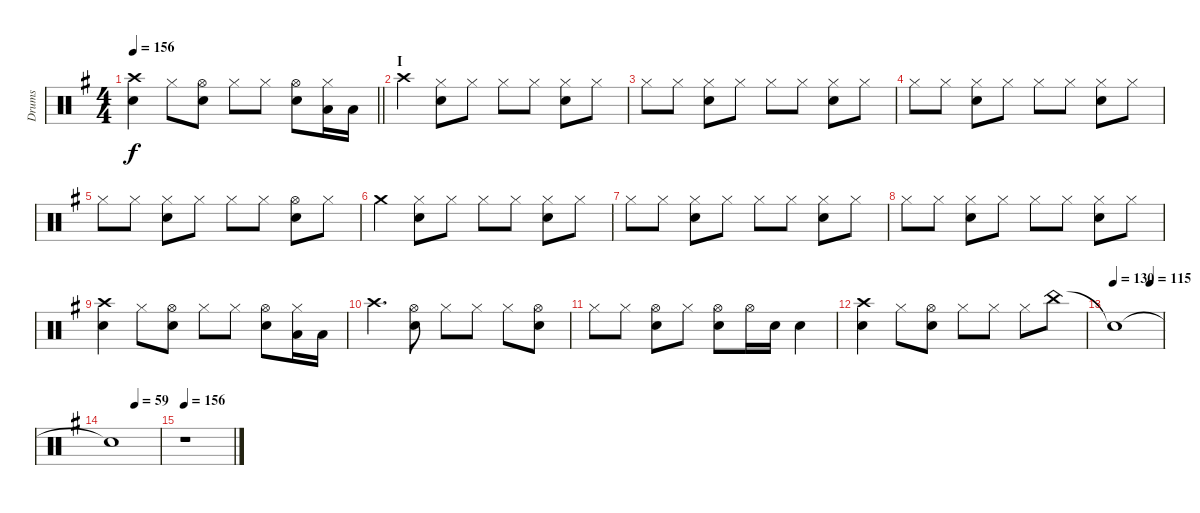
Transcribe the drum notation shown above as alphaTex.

\track ("Drums" "Drums") {instrument percussion}
\staff {score}
\articulation defaults
\ts (4 4)
\tempo 156
\clef neutral
\barLineRight lightlight
\ks g
("Crash high (hit)" "Snare (hit) 2").4{dy f} "Hi-Hat (closed)".8 ("Hi-Hat (open)" "Snare (hit) 2").8 "Hi-Hat (closed)".8 "Hi-Hat (closed)".8 ("Hi-Hat (open)" "Snare (hit) 2").8 ("Hi-Hat (closed)" "Low Tom (hit)").16 "Low Tom (hit)".16 |
\section ("" "I")
"Crash high (hit)".4 ("Hi-Hat (closed)" "Snare (hit) 2").8 "Hi-Hat (closed)".8 "Hi-Hat (closed)".8 "Hi-Hat (closed)".8 ("Hi-Hat (closed)" "Snare (hit) 2").8 "Hi-Hat (closed)".8 |
"Hi-Hat (closed)".8 "Hi-Hat (closed)".8 ("Hi-Hat (closed)" "Snare (hit) 2").8 "Hi-Hat (closed)".8 "Hi-Hat (closed)".8 "Hi-Hat (closed)".8 ("Hi-Hat (closed)" "Snare (hit) 2").8 "Hi-Hat (closed)".8 |
"Hi-Hat (closed)".8 "Hi-Hat (closed)".8 ("Hi-Hat (closed)" "Snare (hit) 2").8 "Hi-Hat (closed)".8 "Hi-Hat (closed)".8 "Hi-Hat (closed)".8 ("Hi-Hat (closed)" "Snare (hit) 2").8 "Hi-Hat (closed)".8 |
"Hi-Hat (closed)".8 "Hi-Hat (closed)".8 ("Hi-Hat (closed)" "Snare (hit) 2").8 "Hi-Hat (closed)".8 "Hi-Hat (closed)".8 "Hi-Hat (closed)".8 ("Hi-Hat (open)" "Snare (hit) 2").8 "Hi-Hat (closed)".8 |
"Crash medium (hit)".4 ("Hi-Hat (closed)" "Snare (hit) 2").8 "Hi-Hat (closed)".8 "Hi-Hat (closed)".8 "Hi-Hat (closed)".8 ("Hi-Hat (closed)" "Snare (hit) 2").8 "Hi-Hat (closed)".8 |
"Hi-Hat (closed)".8 "Hi-Hat (closed)".8 ("Hi-Hat (closed)" "Snare (hit) 2").8 "Hi-Hat (closed)".8 "Hi-Hat (closed)".8 "Hi-Hat (closed)".8 ("Hi-Hat (closed)" "Snare (hit) 2").8 "Hi-Hat (closed)".8 |
"Hi-Hat (closed)".8 "Hi-Hat (closed)".8 ("Hi-Hat (closed)" "Snare (hit) 2").8 "Hi-Hat (closed)".8 "Hi-Hat (closed)".8 "Hi-Hat (closed)".8 ("Hi-Hat (closed)" "Snare (hit) 2").8 "Hi-Hat (closed)".8 |
("Crash high (hit)" "Snare (hit) 2").4 "Hi-Hat (closed)".8 ("Hi-Hat (open)" "Snare (hit) 2").8 "Hi-Hat (closed)".8 "Hi-Hat (closed)".8 ("Hi-Hat (open)" "Snare (hit) 2").8 ("Hi-Hat (closed)" "Low Tom (hit)").16 "Low Tom (hit)".16 |
"Crash high (hit)".4{d} ("Hi-Hat (open)" "Snare (hit) 2").8 "Hi-Hat (closed)".8 "Hi-Hat (closed)".8 "Hi-Hat (closed)".8 ("Hi-Hat (open)" "Snare (hit) 2").8 |
"Hi-Hat (closed)".8 "Hi-Hat (closed)".8 ("Hi-Hat (open)" "Snare (hit) 2").8 "Hi-Hat (closed)".8 ("Hi-Hat (open)" "Snare (hit) 2").8 "Hi-Hat (open)".16 "Snare (hit) 2".16 "Snare (hit) 2".4 |
("Crash high (hit)" "Snare (hit) 2").4 "Hi-Hat (closed)".8 ("Hi-Hat (open)" "Snare (hit) 2").8 "Hi-Hat (closed)".8 "Hi-Hat (closed)".8 "Hi-Hat (closed)".8 "China (hit)".8 |
\tempo 130
\tempo (115 0.75)
"Snare (hit)"{t}.1 |
\tempo (59 0.5)
"Snare (hit)"{t}.1{volume 0} |
\tempo 156
r.1
